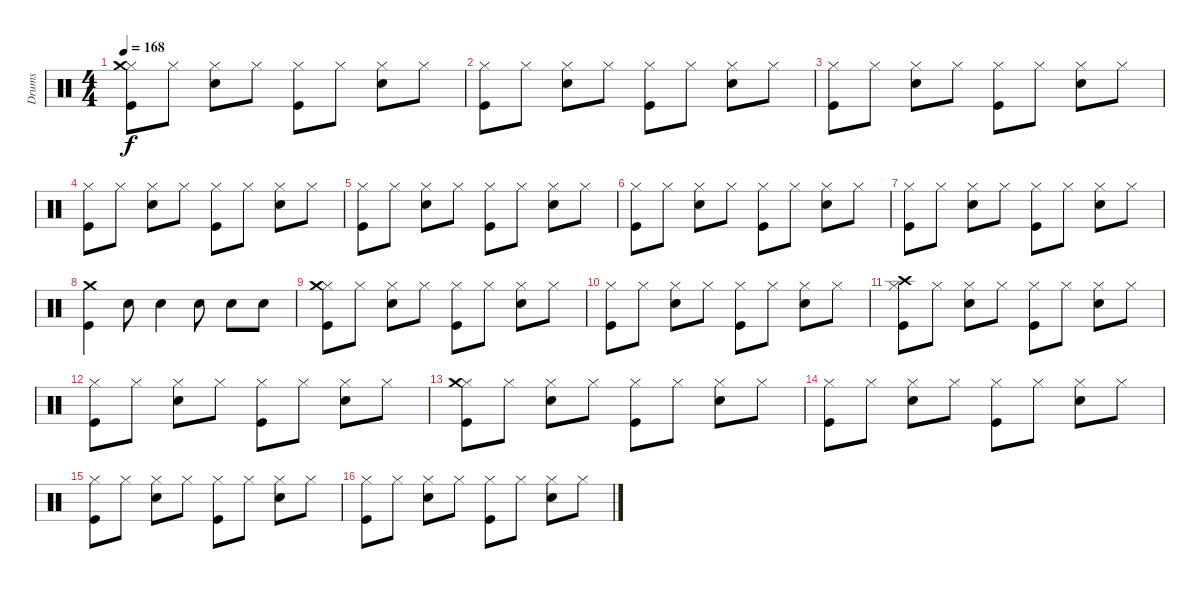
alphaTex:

\track ("Drums" "Drums") {instrument percussion}
\staff {score}
\articulation defaults
\ts (4 4)
\tempo 168
\clef neutral
\ks c
("Kick (hit)" "Hi-Hat (closed)" "Crash medium (hit)").8{dy f} "Hi-Hat (closed)".8 ("Snare (hit) 2" "Hi-Hat (closed)").8 "Hi-Hat (closed)".8 ("Kick (hit)" "Hi-Hat (closed)").8 "Hi-Hat (closed)".8 ("Snare (hit) 2" "Hi-Hat (closed)").8 "Hi-Hat (closed)".8 |
("Kick (hit)" "Hi-Hat (closed)").8 "Hi-Hat (closed)".8 ("Snare (hit) 2" "Hi-Hat (closed)").8 "Hi-Hat (closed)".8 ("Kick (hit)" "Hi-Hat (closed)").8 "Hi-Hat (closed)".8 ("Snare (hit) 2" "Hi-Hat (closed)").8 "Hi-Hat (closed)".8 |
("Kick (hit)" "Hi-Hat (closed)").8 "Hi-Hat (closed)".8 ("Snare (hit) 2" "Hi-Hat (closed)").8 "Hi-Hat (closed)".8 ("Kick (hit)" "Hi-Hat (closed)").8 "Hi-Hat (closed)".8 ("Snare (hit) 2" "Hi-Hat (closed)").8 "Hi-Hat (closed)".8 |
("Kick (hit)" "Hi-Hat (closed)").8 "Hi-Hat (closed)".8 ("Snare (hit) 2" "Hi-Hat (closed)").8 "Hi-Hat (closed)".8 ("Kick (hit)" "Hi-Hat (closed)").8 "Hi-Hat (closed)".8 ("Snare (hit) 2" "Hi-Hat (closed)").8 "Hi-Hat (closed)".8 |
("Kick (hit)" "Hi-Hat (closed)").8 "Hi-Hat (closed)".8 ("Snare (hit) 2" "Hi-Hat (closed)").8 "Hi-Hat (closed)".8 ("Kick (hit)" "Hi-Hat (closed)").8 "Hi-Hat (closed)".8 ("Snare (hit) 2" "Hi-Hat (closed)").8 "Hi-Hat (closed)".8 |
("Kick (hit)" "Hi-Hat (closed)").8 "Hi-Hat (closed)".8 ("Snare (hit) 2" "Hi-Hat (closed)").8 "Hi-Hat (closed)".8 ("Kick (hit)" "Hi-Hat (closed)").8 "Hi-Hat (closed)".8 ("Snare (hit) 2" "Hi-Hat (closed)").8 "Hi-Hat (closed)".8 |
("Kick (hit)" "Hi-Hat (closed)").8 "Hi-Hat (closed)".8 ("Snare (hit) 2" "Hi-Hat (closed)").8 "Hi-Hat (closed)".8 ("Kick (hit)" "Hi-Hat (closed)").8 "Hi-Hat (closed)".8 ("Snare (hit) 2" "Hi-Hat (closed)").8 "Hi-Hat (closed)".8 |
("Kick (hit)" "Crash medium (hit)").4 "Snare (hit) 2".8 "Snare (hit) 2".4 "Snare (hit) 2".8 "Snare (hit) 2".8 "Snare (hit) 2".8 |
("Kick (hit)" "Hi-Hat (closed)" "Crash medium (hit)").8 "Hi-Hat (closed)".8 ("Snare (hit) 2" "Hi-Hat (closed)").8 "Hi-Hat (closed)".8 ("Kick (hit)" "Hi-Hat (closed)").8 "Hi-Hat (closed)".8 ("Snare (hit) 2" "Hi-Hat (closed)").8 "Hi-Hat (closed)".8 |
("Kick (hit)" "Hi-Hat (closed)").8 "Hi-Hat (closed)".8 ("Snare (hit) 2" "Hi-Hat (closed)").8 "Hi-Hat (closed)".8 ("Kick (hit)" "Hi-Hat (closed)").8 "Hi-Hat (closed)".8 ("Snare (hit) 2" "Hi-Hat (closed)").8 "Hi-Hat (closed)".8 |
("Kick (hit)" "Hi-Hat (closed)" "Crash high (hit)").8 "Hi-Hat (closed)".8 ("Snare (hit) 2" "Hi-Hat (closed)").8 "Hi-Hat (closed)".8 ("Kick (hit)" "Hi-Hat (closed)").8 "Hi-Hat (closed)".8 ("Snare (hit) 2" "Hi-Hat (closed)").8 "Hi-Hat (closed)".8 |
("Kick (hit)" "Hi-Hat (closed)").8 "Hi-Hat (closed)".8 ("Snare (hit) 2" "Hi-Hat (closed)").8 "Hi-Hat (closed)".8 ("Kick (hit)" "Hi-Hat (closed)").8 "Hi-Hat (closed)".8 ("Snare (hit) 2" "Hi-Hat (closed)").8 "Hi-Hat (closed)".8 |
("Kick (hit)" "Hi-Hat (closed)" "Crash medium (hit)").8 "Hi-Hat (closed)".8 ("Snare (hit) 2" "Hi-Hat (closed)").8 "Hi-Hat (closed)".8 ("Kick (hit)" "Hi-Hat (closed)").8 "Hi-Hat (closed)".8 ("Snare (hit) 2" "Hi-Hat (closed)").8 "Hi-Hat (closed)".8 |
("Kick (hit)" "Hi-Hat (closed)").8 "Hi-Hat (closed)".8 ("Snare (hit) 2" "Hi-Hat (closed)").8 "Hi-Hat (closed)".8 ("Kick (hit)" "Hi-Hat (closed)").8 "Hi-Hat (closed)".8 ("Snare (hit) 2" "Hi-Hat (closed)").8 "Hi-Hat (closed)".8 |
("Kick (hit)" "Hi-Hat (closed)").8 "Hi-Hat (closed)".8 ("Snare (hit) 2" "Hi-Hat (closed)").8 "Hi-Hat (closed)".8 ("Kick (hit)" "Hi-Hat (closed)").8 "Hi-Hat (closed)".8 ("Snare (hit) 2" "Hi-Hat (closed)").8 "Hi-Hat (closed)".8 |
("Kick (hit)" "Hi-Hat (closed)").8 "Hi-Hat (closed)".8 ("Snare (hit) 2" "Hi-Hat (closed)").8 "Hi-Hat (closed)".8 ("Kick (hit)" "Hi-Hat (closed)").8 "Hi-Hat (closed)".8 ("Snare (hit) 2" "Hi-Hat (closed)").8 "Hi-Hat (closed)".8
